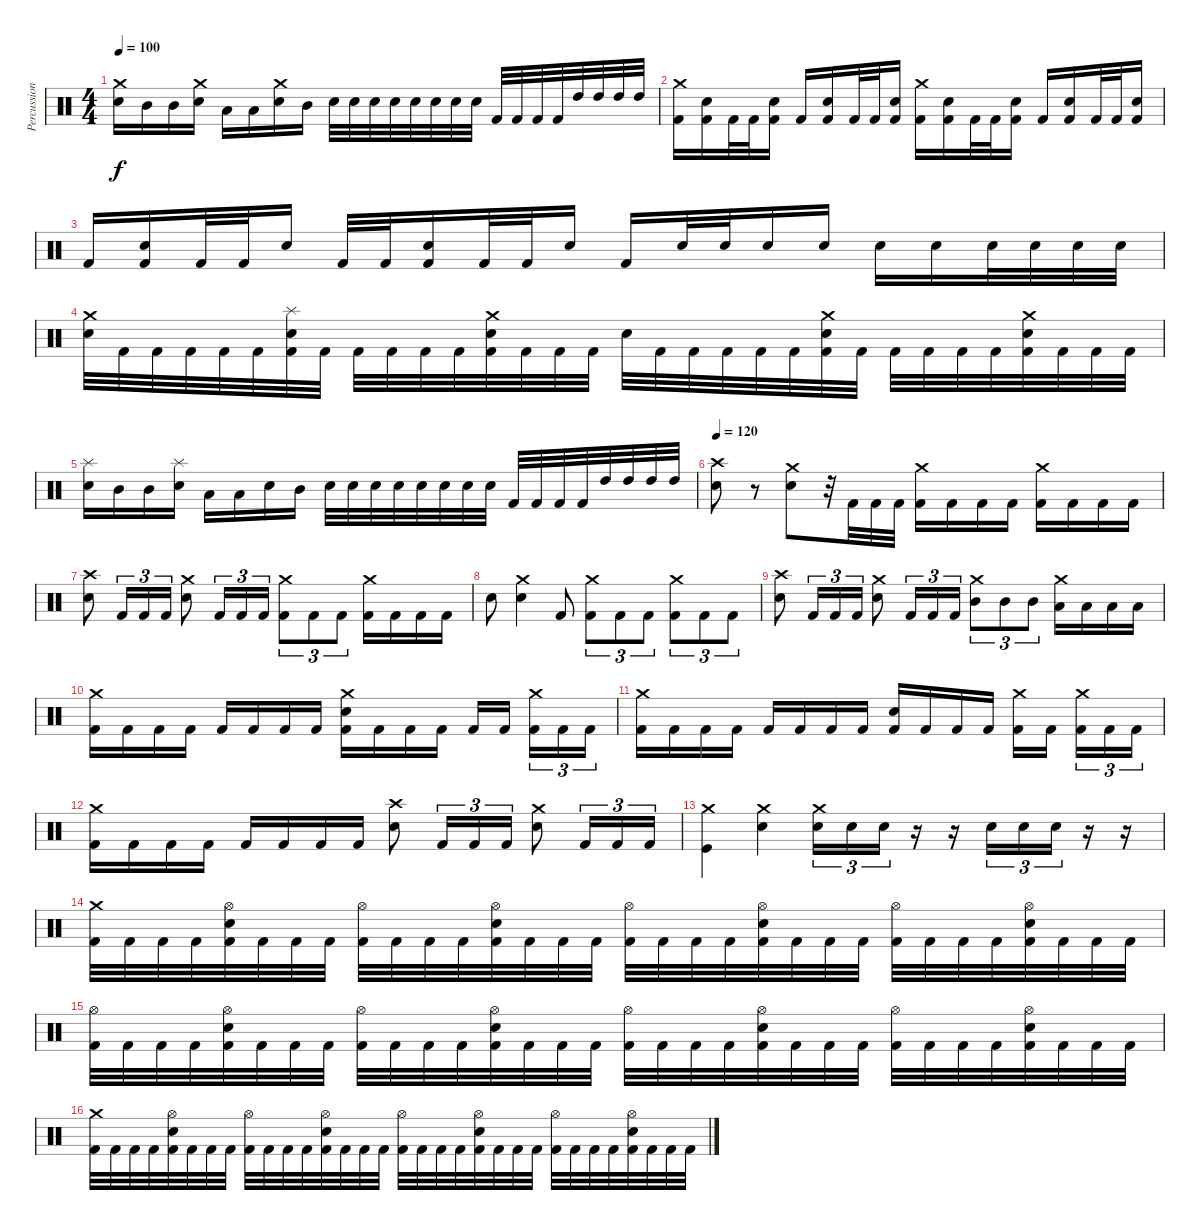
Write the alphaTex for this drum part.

\track ("Percussion" "Percussion") {instrument percussion}
\staff {score}
\articulation defaults
\ts (4 4)
\tempo 100
\clef neutral
\ks c
("Crash medium (hit)" "Electric Snare (hit)").16{dy f} "Mid Tom (hit)".16 "Mid Tom (hit)".16 ("Crash medium (hit)" "Electric Snare (hit)").16 "Low Tom (hit)".16 "Low Tom (hit)".16 ("Crash medium (hit)" "Electric Snare (hit)").16 "Mid Tom (hit)".16 "Electric Snare (hit)".32 "Electric Snare (hit)".32 "Electric Snare (hit)".32 "Electric Snare (hit)".32 "Snare (hit) 2".32 "Snare (hit) 2".32 "Snare (hit) 2".32 "Snare (hit) 2".32 "Kick (hit) 2".32 "Kick (hit) 2".32 "Kick (hit) 2".32 "Kick (hit) 2".32 "High Tom (hit)".32 "High Tom (hit)".32 "High Tom (hit)".32 "High Tom (hit)".32 |
("Crash medium (hit)" "Kick (hit) 2").16 ("Kick (hit) 2" "Electric Snare (hit)").16 "Kick (hit) 2".32 "Kick (hit) 2".32 ("Kick (hit) 2" "Electric Snare (hit)").16 "Kick (hit) 2".16 ("Kick (hit) 2" "Electric Snare (hit)").16 "Kick (hit) 2".32 "Kick (hit) 2".32 ("Kick (hit) 2" "Electric Snare (hit)").16 ("Crash medium (hit)" "Kick (hit) 2").16 ("Kick (hit) 2" "Electric Snare (hit)").16 "Kick (hit) 2".32 "Kick (hit) 2".32 ("Kick (hit) 2" "Electric Snare (hit)").16 "Kick (hit) 2".16 ("Kick (hit) 2" "Electric Snare (hit)").16 "Kick (hit) 2".32 "Kick (hit) 2".32 ("Kick (hit) 2" "Electric Snare (hit)").16 |
"Kick (hit) 2".16 ("Kick (hit) 2" "Electric Snare (hit)").16 "Kick (hit) 2".32 "Kick (hit) 2".32 "Electric Snare (hit)".16 "Kick (hit) 2".32 "Kick (hit) 2".32 ("Kick (hit) 2" "Electric Snare (hit)").16 "Kick (hit) 2".32 "Kick (hit) 2".32 "Electric Snare (hit)".16 "Kick (hit) 2".16 "Electric Snare (hit)".32 "Electric Snare (hit)".32 "Electric Snare (hit)".16 "Electric Snare (hit)".16 "Electric Snare (hit)".16 "Electric Snare (hit)".16 "Electric Snare (hit)".32 "Electric Snare (hit)".32 "Electric Snare (hit)".32 "Electric Snare (hit)".32 |
("Crash medium (hit)" "Snare (hit) 2").32 "Kick (hit) 2".32 "Kick (hit) 2".32 "Kick (hit) 2".32 "Kick (hit) 2".32 "Kick (hit) 2".32 ("Splash (hit)" "Kick (hit) 2" "Snare (hit) 2").32 "Kick (hit) 2".32 "Kick (hit) 2".32 "Kick (hit) 2".32 "Kick (hit) 2".32 "Kick (hit) 2".32 ("Crash medium (hit)" "Kick (hit) 2" "Snare (hit) 2").32 "Kick (hit) 2".32 "Kick (hit) 2".32 "Kick (hit) 2".32 "Snare (hit) 2".32 "Kick (hit) 2".32 "Kick (hit) 2".32 "Kick (hit) 2".32 "Kick (hit) 2".32 "Kick (hit) 2".32 ("Crash medium (hit)" "Kick (hit) 2" "Snare (hit) 2").32 "Kick (hit) 2".32 "Kick (hit) 2".32 "Kick (hit) 2".32 "Kick (hit) 2".32 "Kick (hit) 2".32 ("Crash medium (hit)" "Kick (hit) 2" "Snare (hit) 2").32 "Kick (hit) 2".32 "Kick (hit) 2".32 "Kick (hit) 2".32 |
("Splash (hit)" "Snare (hit) 2").16 "Mid Tom (hit)".16 "Mid Tom (hit)".16 ("Splash (hit)" "Snare (hit) 2").16 "Low Tom (hit)".16 "Low Tom (hit)".16 "Snare (hit) 2".16 "Mid Tom (hit)".16 "Electric Snare (hit)".32 "Electric Snare (hit)".32 "Electric Snare (hit)".32 "Electric Snare (hit)".32 "Snare (hit) 2".32 "Snare (hit) 2".32 "Snare (hit) 2".32 "Snare (hit) 2".32 "Kick (hit) 2".32 "Kick (hit) 2".32 "Kick (hit) 2".32 "Kick (hit) 2".32 "High Tom (hit)".32 "High Tom (hit)".32 "High Tom (hit)".32 "High Tom (hit)".32 |
\tempo 120
("Crash high (hit)" "Electric Snare (hit)").8 r.8 ("Crash medium (hit)" "Snare (hit) 2").8 r.32 "Kick (hit) 2".32 "Kick (hit) 2".32 "Kick (hit) 2".32 ("Crash medium (hit)" "Kick (hit) 2").16 "Kick (hit) 2".16 "Kick (hit) 2".16 "Kick (hit) 2".16 ("Crash medium (hit)" "Kick (hit) 2").16 "Kick (hit) 2".16 "Kick (hit) 2".16 "Kick (hit) 2".16 |
("Crash high (hit)" "Snare (hit) 2").8 "Kick (hit) 2".16{tu (3 2)} "Kick (hit) 2".16{tu (3 2)} "Kick (hit) 2".16{tu (3 2)} ("Crash medium (hit)" "Snare (hit) 2").8 "Kick (hit) 2".16{tu (3 2)} "Kick (hit) 2".16{tu (3 2)} "Kick (hit) 2".16{tu (3 2)} ("Crash medium (hit)" "Kick (hit) 2").8{tu (3 2)} "Kick (hit) 2".8{tu (3 2)} "Kick (hit) 2".8{tu (3 2)} ("Crash medium (hit)" "Kick (hit) 2").16 "Kick (hit) 2".16 "Kick (hit) 2".16 "Kick (hit) 2".16 |
"Electric Snare (hit)".8 ("Crash medium (hit)" "Snare (hit) 2").4 "Kick (hit) 2".8 ("Crash medium (hit)" "Kick (hit) 2").8{tu (3 2)} "Kick (hit) 2".8{tu (3 2)} "Kick (hit) 2".8{tu (3 2)} ("Crash medium (hit)" "Kick (hit) 2").8{tu (3 2)} "Kick (hit) 2".8{tu (3 2)} "Kick (hit) 2".8{tu (3 2)} |
("Crash high (hit)" "Snare (hit) 2").8 "Kick (hit) 2".16{tu (3 2)} "Kick (hit) 2".16{tu (3 2)} "Kick (hit) 2".16{tu (3 2)} ("Crash medium (hit)" "Snare (hit) 2").8 "Kick (hit) 2".16{tu (3 2)} "Kick (hit) 2".16{tu (3 2)} "Kick (hit) 2".16{tu (3 2)} ("Crash medium (hit)" "Mid Tom (hit)").8{tu (3 2)} "Mid Tom (hit)".8{tu (3 2)} "Mid Tom (hit)".8{tu (3 2)} ("Crash medium (hit)" "Low Tom (hit)").16 "Low Tom (hit)".16 "Low Tom (hit)".16 "Low Tom (hit)".16 |
("Crash medium (hit)" "Kick (hit) 2").16 "Kick (hit) 2".16 "Kick (hit) 2".16 "Kick (hit) 2".16 "Kick (hit) 2".16 "Kick (hit) 2".16 "Kick (hit) 2".16 "Kick (hit) 2".16 ("Crash medium (hit)" "Kick (hit) 2" "Electric Snare (hit)").16 "Kick (hit) 2".16 "Kick (hit) 2".16 "Kick (hit) 2".16 "Kick (hit) 2".16 "Kick (hit) 2".16{beam splitsecondary} ("Crash medium (hit)" "Kick (hit) 2").16{tu (3 2)} "Kick (hit) 2".16{tu (3 2)} "Kick (hit) 2".16{tu (3 2)} |
("Crash medium (hit)" "Kick (hit) 2").16 "Kick (hit) 2".16 "Kick (hit) 2".16 "Kick (hit) 2".16 "Kick (hit) 2".16 "Kick (hit) 2".16 "Kick (hit) 2".16 "Kick (hit) 2".16 ("Kick (hit) 2" "Electric Snare (hit)").16 "Kick (hit) 2".16 "Kick (hit) 2".16 "Kick (hit) 2".16 ("Crash medium (hit)" "Kick (hit) 2").16 "Kick (hit) 2".16{beam splitsecondary} ("Crash medium (hit)" "Kick (hit) 2").16{tu (3 2)} "Kick (hit) 2".16{tu (3 2)} "Kick (hit) 2".16{tu (3 2)} |
("Crash medium (hit)" "Kick (hit) 2").16 "Kick (hit) 2".16 "Kick (hit) 2".16 "Kick (hit) 2".16 "Kick (hit) 2".16 "Kick (hit) 2".16 "Kick (hit) 2".16 "Kick (hit) 2".16 ("Crash high (hit)" "Snare (hit) 2").8 "Kick (hit) 2".16{tu (3 2)} "Kick (hit) 2".16{tu (3 2)} "Kick (hit) 2".16{tu (3 2)} ("Crash medium (hit)" "Snare (hit) 2").8 "Kick (hit) 2".16{tu (3 2)} "Kick (hit) 2".16{tu (3 2)} "Kick (hit) 2".16{tu (3 2)} |
("Crash medium (hit)" "Kick (hit)").4 ("Crash medium (hit)" "Electric Snare (hit)").4 ("Crash medium (hit)" "Electric Snare (hit)").16{tu (3 2)} "Electric Snare (hit)".16{tu (3 2)} "Electric Snare (hit)".16{tu (3 2)} r.16 r.16 "Electric Snare (hit)".16{tu (3 2)} "Electric Snare (hit)".16{tu (3 2)} "Electric Snare (hit)".16{tu (3 2)} r.16 r.16 |
("Crash medium (hit)" "Kick (hit) 2").32 "Kick (hit) 2".32 "Kick (hit) 2".32 "Kick (hit) 2".32 ("Hi-Hat (open)" "Kick (hit) 2" "Electric Snare (hit)").32 "Kick (hit) 2".32 "Kick (hit) 2".32 "Kick (hit) 2".32 ("Hi-Hat (open)" "Kick (hit) 2").32 "Kick (hit) 2".32 "Kick (hit) 2".32 "Kick (hit) 2".32 ("Hi-Hat (open)" "Kick (hit) 2" "Electric Snare (hit)").32 "Kick (hit) 2".32 "Kick (hit) 2".32 "Kick (hit) 2".32 ("Hi-Hat (open)" "Kick (hit) 2").32 "Kick (hit) 2".32 "Kick (hit) 2".32 "Kick (hit) 2".32 ("Hi-Hat (open)" "Kick (hit) 2" "Electric Snare (hit)").32 "Kick (hit) 2".32 "Kick (hit) 2".32 "Kick (hit) 2".32 ("Hi-Hat (open)" "Kick (hit) 2").32 "Kick (hit) 2".32 "Kick (hit) 2".32 "Kick (hit) 2".32 ("Hi-Hat (open)" "Kick (hit) 2" "Electric Snare (hit)").32 "Kick (hit) 2".32 "Kick (hit) 2".32 "Kick (hit) 2".32 |
("Hi-Hat (open)" "Kick (hit) 2").32 "Kick (hit) 2".32 "Kick (hit) 2".32 "Kick (hit) 2".32 ("Hi-Hat (open)" "Kick (hit) 2" "Electric Snare (hit)").32 "Kick (hit) 2".32 "Kick (hit) 2".32 "Kick (hit) 2".32 ("Hi-Hat (open)" "Kick (hit) 2").32 "Kick (hit) 2".32 "Kick (hit) 2".32 "Kick (hit) 2".32 ("Hi-Hat (open)" "Kick (hit) 2" "Electric Snare (hit)").32 "Kick (hit) 2".32 "Kick (hit) 2".32 "Kick (hit) 2".32 ("Hi-Hat (open)" "Kick (hit) 2").32 "Kick (hit) 2".32 "Kick (hit) 2".32 "Kick (hit) 2".32 ("Hi-Hat (open)" "Kick (hit) 2" "Electric Snare (hit)").32 "Kick (hit) 2".32 "Kick (hit) 2".32 "Kick (hit) 2".32 ("Hi-Hat (open)" "Kick (hit) 2").32 "Kick (hit) 2".32 "Kick (hit) 2".32 "Kick (hit) 2".32 ("Hi-Hat (open)" "Kick (hit) 2" "Electric Snare (hit)").32 "Kick (hit) 2".32 "Kick (hit) 2".32 "Kick (hit) 2".32 |
("Crash medium (hit)" "Kick (hit) 2").32 "Kick (hit) 2".32 "Kick (hit) 2".32 "Kick (hit) 2".32 ("Hi-Hat (open)" "Kick (hit) 2" "Electric Snare (hit)").32 "Kick (hit) 2".32 "Kick (hit) 2".32 "Kick (hit) 2".32 ("Hi-Hat (open)" "Kick (hit) 2").32 "Kick (hit) 2".32 "Kick (hit) 2".32 "Kick (hit) 2".32 ("Hi-Hat (open)" "Kick (hit) 2" "Electric Snare (hit)").32 "Kick (hit) 2".32 "Kick (hit) 2".32 "Kick (hit) 2".32 ("Hi-Hat (open)" "Kick (hit) 2").32 "Kick (hit) 2".32 "Kick (hit) 2".32 "Kick (hit) 2".32 ("Hi-Hat (open)" "Kick (hit) 2" "Electric Snare (hit)").32 "Kick (hit) 2".32 "Kick (hit) 2".32 "Kick (hit) 2".32 ("Hi-Hat (open)" "Kick (hit) 2").32 "Kick (hit) 2".32 "Kick (hit) 2".32 "Kick (hit) 2".32 ("Hi-Hat (open)" "Kick (hit) 2" "Electric Snare (hit)").32 "Kick (hit) 2".32 "Kick (hit) 2".32 "Kick (hit) 2".32
